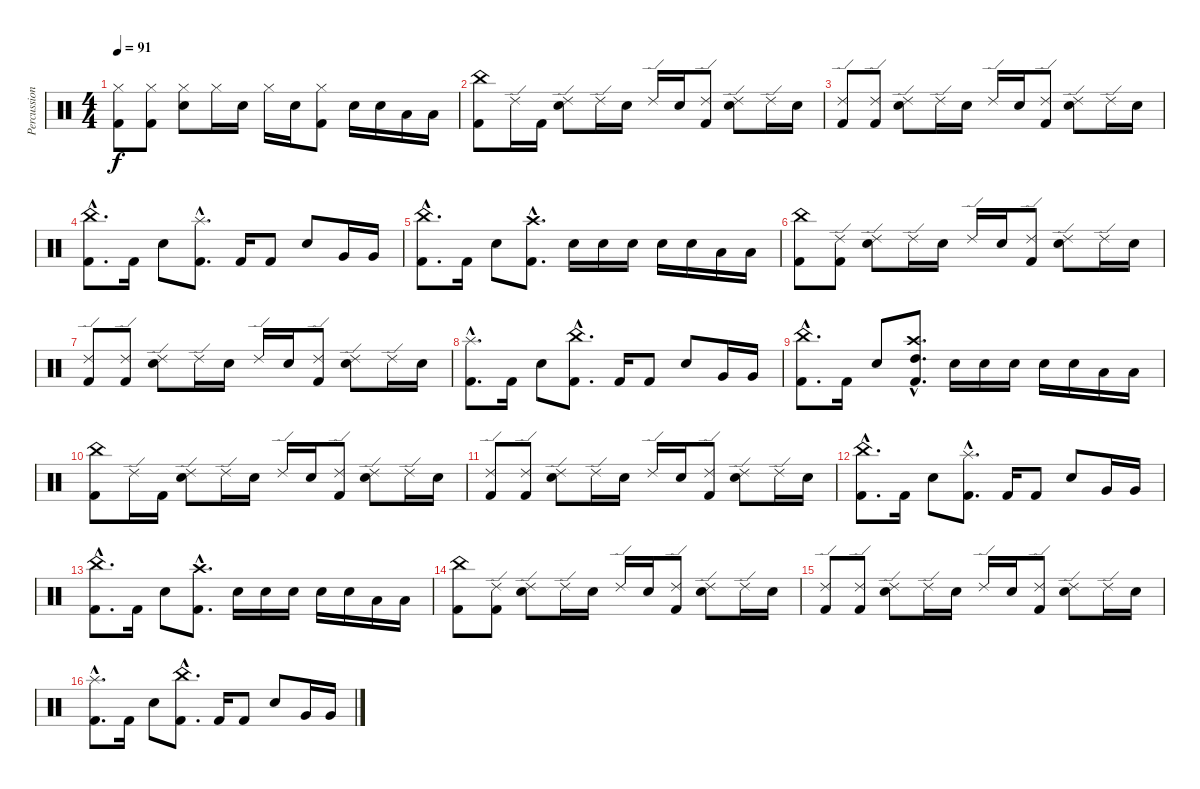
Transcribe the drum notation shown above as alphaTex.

\track ("Percussion" "Percussion") {instrument percussion}
\staff {score}
\articulation defaults
\ts (4 4)
\tempo 91
\clef neutral
\ks c
("Hi-Hat (closed)" "Kick (hit) 2").8{dy f} ("Kick (hit) 2" "Hi-Hat (closed)").8 ("Electric Snare (hit)" "Hi-Hat (closed)").8 "Hi-Hat (closed)".16 "Electric Snare (hit)".16 "Hi-Hat (closed)".16 "Electric Snare (hit)".16 ("Kick (hit) 2" "Hi-Hat (closed)").8 "Electric Snare (hit)".16 "Electric Snare (hit)".16 "Low Tom (hit)".16 "Low Tom (hit)".16 |
("Kick (hit) 2" "China (hit)").8 "Ride (edge) 2".16 "Kick (hit) 2".16 ("Electric Snare (hit)" "Ride (edge) 2").8 "Ride (edge) 2".16 "Electric Snare (hit)".16 "Ride (edge) 2".16 "Electric Snare (hit)".16 ("Kick (hit) 2" "Ride (edge) 2").8 ("Electric Snare (hit)" "Ride (edge) 2").8 "Ride (edge) 2".16 "Electric Snare (hit)".16 |
("Ride (edge) 2" "Kick (hit) 2").8 ("Ride (edge) 2" "Kick (hit) 2").8 ("Ride (edge) 2" "Electric Snare (hit)").8 "Ride (edge) 2".16 "Electric Snare (hit)".16 "Ride (edge) 2".16 "Electric Snare (hit)".16 ("Ride (edge) 2" "Kick (hit) 2").8 ("Electric Snare (hit)" "Ride (edge) 2").8 "Ride (edge) 2".16 "Electric Snare (hit)".16 |
("China (hit)"{hac} "Kick (hit) 2"{hac}).8{d} "Kick (hit) 2".16 "Electric Snare (hit)".8 ("Splash (hit)"{hac} "Kick (hit) 2"{hac}).8{d} "Kick (hit) 2".16 "Kick (hit) 2".8 "Electric Snare (hit)".8 "Very Low Tom (hit)".16 "Very Low Tom (hit)".16 |
("China (hit)"{hac} "Kick (hit) 2"{hac}).8{d} "Kick (hit) 2".16 "Electric Snare (hit)".8 ("Kick (hit) 2"{hac} "Crash high (hit)"{hac}).8{d} "Electric Snare (hit)".16 "Electric Snare (hit)".16 "Electric Snare (hit)".16 "Electric Snare (hit)".16 "Electric Snare (hit)".16 "Low Tom (hit)".16 "Low Tom (hit)".16 |
("China (hit)" "Kick (hit) 2").8 ("Ride (edge) 2" "Kick (hit) 2").8 ("Electric Snare (hit)" "Ride (edge) 2").8 "Ride (edge) 2".16 "Electric Snare (hit)".16 "Ride (edge) 2".16 "Electric Snare (hit)".16 ("Ride (edge) 2" "Kick (hit) 2").8 ("Ride (edge) 2" "Electric Snare (hit)").8 "Ride (edge) 2".16 "Electric Snare (hit)".16 |
("Kick (hit) 2" "Ride (edge) 2").8 ("Kick (hit) 2" "Ride (edge) 2").8 ("Ride (edge) 2" "Electric Snare (hit)").8 "Ride (edge) 2".16 "Electric Snare (hit)".16 "Ride (edge) 2".16 "Electric Snare (hit)".16 ("Kick (hit) 2" "Ride (edge) 2").8 ("Electric Snare (hit)" "Ride (edge) 2").8 "Ride (edge) 2".16 "Electric Snare (hit)".16 |
("Kick (hit) 2"{hac} "Splash (hit)"{hac}).8{d} "Kick (hit) 2".16 "Electric Snare (hit)".8 ("Kick (hit) 2"{hac} "China (hit)"{hac}).8{d} "Kick (hit) 2".16 "Kick (hit) 2".8 "Electric Snare (hit)".8 "Very Low Tom (hit)".16 "Very Low Tom (hit)".16 |
("Kick (hit) 2"{hac} "China (hit)"{hac}).8{d} "Kick (hit) 2".16 "Electric Snare (hit)".8 ("Kick (hit) 2"{hac} "Crash high (hit)"{hac} "High Tom (hit)"{hac}).8{d} "Electric Snare (hit)".16 "Electric Snare (hit)".16 "Electric Snare (hit)".16 "Electric Snare (hit)".16 "Electric Snare (hit)".16 "Low Tom (hit)".16 "Low Tom (hit)".16 |
("China (hit)" "Kick (hit) 2").8 "Ride (edge) 2".16 "Kick (hit) 2".16 ("Electric Snare (hit)" "Ride (edge) 2").8 "Ride (edge) 2".16 "Electric Snare (hit)".16 "Ride (edge) 2".16 "Electric Snare (hit)".16 ("Ride (edge) 2" "Kick (hit) 2").8 ("Ride (edge) 2" "Electric Snare (hit)").8 "Ride (edge) 2".16 "Electric Snare (hit)".16 |
("Kick (hit) 2" "Ride (edge) 2").8 ("Ride (edge) 2" "Kick (hit) 2").8 ("Ride (edge) 2" "Electric Snare (hit)").8 "Ride (edge) 2".16 "Electric Snare (hit)".16 "Ride (edge) 2".16 "Electric Snare (hit)".16 ("Ride (edge) 2" "Kick (hit) 2").8 ("Electric Snare (hit)" "Ride (edge) 2").8 "Ride (edge) 2".16 "Electric Snare (hit)".16 |
("Kick (hit) 2"{hac} "China (hit)"{hac}).8{d} "Kick (hit) 2".16 "Electric Snare (hit)".8 ("Splash (hit)"{hac} "Kick (hit) 2"{hac}).8{d} "Kick (hit) 2".16 "Kick (hit) 2".8 "Electric Snare (hit)".8 "Very Low Tom (hit)".16 "Very Low Tom (hit)".16 |
("China (hit)"{hac} "Kick (hit) 2"{hac}).8{d} "Kick (hit) 2".16 "Electric Snare (hit)".8 ("Crash high (hit)"{hac} "Kick (hit) 2"{hac}).8{d} "Electric Snare (hit)".16 "Electric Snare (hit)".16 "Electric Snare (hit)".16 "Electric Snare (hit)".16 "Electric Snare (hit)".16 "Low Tom (hit)".16 "Low Tom (hit)".16 |
("China (hit)" "Kick (hit) 2").8 ("Kick (hit) 2" "Ride (edge) 2").8 ("Electric Snare (hit)" "Ride (edge) 2").8 "Ride (edge) 2".16 "Electric Snare (hit)".16 "Ride (edge) 2".16 "Electric Snare (hit)".16 ("Ride (edge) 2" "Kick (hit) 2").8 ("Ride (edge) 2" "Electric Snare (hit)").8 "Ride (edge) 2".16 "Electric Snare (hit)".16 |
("Kick (hit) 2" "Ride (edge) 2").8 ("Ride (edge) 2" "Kick (hit) 2").8 ("Ride (edge) 2" "Electric Snare (hit)").8 "Ride (edge) 2".16 "Electric Snare (hit)".16 "Ride (edge) 2".16 "Electric Snare (hit)".16 ("Kick (hit) 2" "Ride (edge) 2").8 ("Electric Snare (hit)" "Ride (edge) 2").8 "Ride (edge) 2".16 "Electric Snare (hit)".16 |
("Kick (hit) 2"{hac} "Splash (hit)"{hac}).8{d} "Kick (hit) 2".16 "Electric Snare (hit)".8 ("China (hit)"{hac} "Kick (hit) 2"{hac}).8{d} "Kick (hit) 2".16 "Kick (hit) 2".8 "Electric Snare (hit)".8 "Very Low Tom (hit)".16 "Very Low Tom (hit)".16
